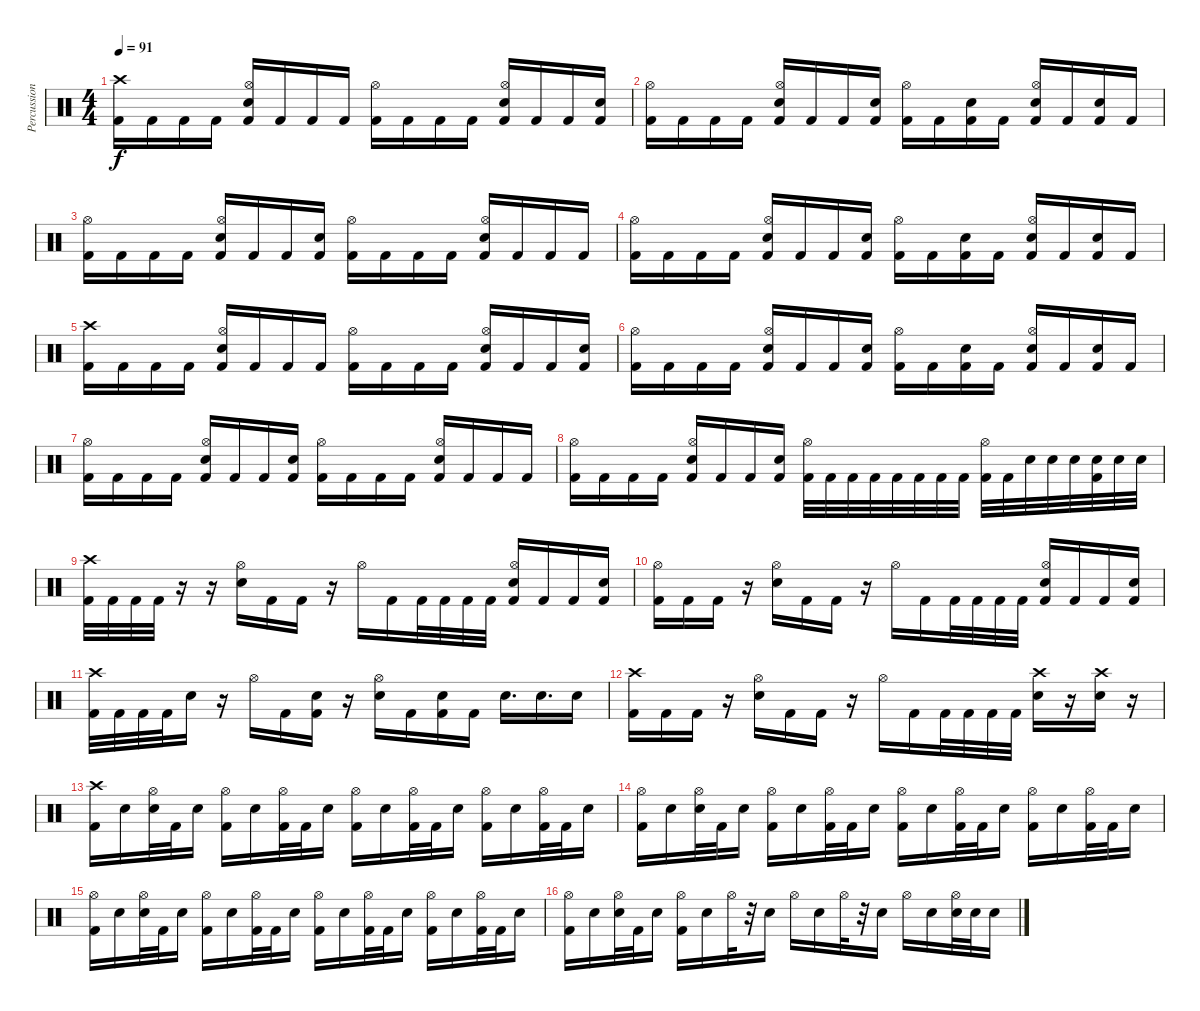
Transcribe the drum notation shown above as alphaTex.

\track ("Percussion" "Percussion") {instrument percussion}
\staff {score}
\articulation defaults
\ts (4 4)
\tempo 91
\clef neutral
\ks c
("Crash high (hit)" "Kick (hit) 2").16{dy f} "Kick (hit) 2".16 "Kick (hit) 2".16 "Kick (hit) 2".16 ("Hi-Hat (open)" "Snare (hit) 2" "Kick (hit) 2").16 "Kick (hit) 2".16 "Kick (hit) 2".16 "Kick (hit) 2".16 ("Hi-Hat (open)" "Kick (hit) 2").16 "Kick (hit) 2".16 "Kick (hit) 2".16 "Kick (hit) 2".16 ("Hi-Hat (open)" "Snare (hit) 2" "Kick (hit) 2").16 "Kick (hit) 2".16 "Kick (hit) 2".16 ("Snare (hit) 2" "Kick (hit) 2").16 |
("Hi-Hat (open)" "Kick (hit) 2").16 "Kick (hit) 2".16 "Kick (hit) 2".16 "Kick (hit) 2".16 ("Hi-Hat (open)" "Snare (hit) 2" "Kick (hit) 2").16 "Kick (hit) 2".16 "Kick (hit) 2".16 ("Snare (hit) 2" "Kick (hit) 2").16 ("Hi-Hat (open)" "Kick (hit) 2").16 "Kick (hit) 2".16 ("Snare (hit) 2" "Kick (hit) 2").16 "Kick (hit) 2".16 ("Hi-Hat (open)" "Snare (hit) 2" "Kick (hit) 2").16 "Kick (hit) 2".16 ("Snare (hit) 2" "Kick (hit) 2").16 "Kick (hit) 2".16 |
("Hi-Hat (open)" "Kick (hit) 2").16 "Kick (hit) 2".16 "Kick (hit) 2".16 "Kick (hit) 2".16 ("Hi-Hat (open)" "Snare (hit) 2" "Kick (hit) 2").16 "Kick (hit) 2".16 "Kick (hit) 2".16 ("Snare (hit) 2" "Kick (hit) 2").16 ("Hi-Hat (open)" "Kick (hit) 2").16 "Kick (hit) 2".16 "Kick (hit) 2".16 "Kick (hit) 2".16 ("Hi-Hat (open)" "Snare (hit) 2" "Kick (hit) 2").16 "Kick (hit) 2".16 "Kick (hit) 2".16 "Kick (hit) 2".16 |
("Hi-Hat (open)" "Kick (hit) 2").16 "Kick (hit) 2".16 "Kick (hit) 2".16 "Kick (hit) 2".16 ("Hi-Hat (open)" "Snare (hit) 2" "Kick (hit) 2").16 "Kick (hit) 2".16 "Kick (hit) 2".16 ("Snare (hit) 2" "Kick (hit) 2").16 ("Hi-Hat (open)" "Kick (hit) 2").16 "Kick (hit) 2".16 ("Snare (hit) 2" "Kick (hit) 2").16 "Kick (hit) 2".16 ("Hi-Hat (open)" "Snare (hit) 2" "Kick (hit) 2").16 "Kick (hit) 2".16 ("Snare (hit) 2" "Kick (hit) 2").16 "Kick (hit) 2".16 |
("Crash high (hit)" "Kick (hit) 2").16 "Kick (hit) 2".16 "Kick (hit) 2".16 "Kick (hit) 2".16 ("Hi-Hat (open)" "Snare (hit) 2" "Kick (hit) 2").16 "Kick (hit) 2".16 "Kick (hit) 2".16 "Kick (hit) 2".16 ("Hi-Hat (open)" "Kick (hit) 2").16 "Kick (hit) 2".16 "Kick (hit) 2".16 "Kick (hit) 2".16 ("Hi-Hat (open)" "Snare (hit) 2" "Kick (hit) 2").16 "Kick (hit) 2".16 "Kick (hit) 2".16 ("Snare (hit) 2" "Kick (hit) 2").16 |
("Hi-Hat (open)" "Kick (hit) 2").16 "Kick (hit) 2".16 "Kick (hit) 2".16 "Kick (hit) 2".16 ("Hi-Hat (open)" "Snare (hit) 2" "Kick (hit) 2").16 "Kick (hit) 2".16 "Kick (hit) 2".16 ("Snare (hit) 2" "Kick (hit) 2").16 ("Hi-Hat (open)" "Kick (hit) 2").16 "Kick (hit) 2".16 ("Snare (hit) 2" "Kick (hit) 2").16 "Kick (hit) 2".16 ("Hi-Hat (open)" "Snare (hit) 2" "Kick (hit) 2").16 "Kick (hit) 2".16 ("Snare (hit) 2" "Kick (hit) 2").16 "Kick (hit) 2".16 |
("Hi-Hat (open)" "Kick (hit) 2").16 "Kick (hit) 2".16 "Kick (hit) 2".16 "Kick (hit) 2".16 ("Hi-Hat (open)" "Snare (hit) 2" "Kick (hit) 2").16 "Kick (hit) 2".16 "Kick (hit) 2".16 ("Snare (hit) 2" "Kick (hit) 2").16 ("Hi-Hat (open)" "Kick (hit) 2").16 "Kick (hit) 2".16 "Kick (hit) 2".16 "Kick (hit) 2".16 ("Hi-Hat (open)" "Snare (hit) 2" "Kick (hit) 2").16 "Kick (hit) 2".16 "Kick (hit) 2".16 "Kick (hit) 2".16 |
("Hi-Hat (open)" "Kick (hit) 2").16 "Kick (hit) 2".16 "Kick (hit) 2".16 "Kick (hit) 2".16 ("Hi-Hat (open)" "Snare (hit) 2" "Kick (hit) 2").16 "Kick (hit) 2".16 "Kick (hit) 2".16 ("Snare (hit) 2" "Kick (hit) 2").16 ("Hi-Hat (open)" "Kick (hit) 2").32 "Kick (hit) 2".32 "Kick (hit) 2".32 "Kick (hit) 2".32 "Kick (hit) 2".32 "Kick (hit) 2".32 "Kick (hit) 2".32 "Kick (hit) 2".32 ("Hi-Hat (open)" "Kick (hit) 2").32 "Kick (hit) 2".32 "Snare (hit) 2".32 "Snare (hit) 2".32 "Snare (hit) 2".32 ("Snare (hit) 2" "Kick (hit) 2").32 "Snare (hit) 2".32 "Snare (hit) 2".32 |
("Crash high (hit)" "Kick (hit) 2").32 "Kick (hit) 2".32 "Kick (hit) 2".32 "Kick (hit) 2".32 r.16 r.16 ("Hi-Hat (open)" "Snare (hit) 2").16 "Kick (hit) 2".16 "Kick (hit) 2".16 r.16 "Hi-Hat (open)".16 "Kick (hit) 2".16 "Kick (hit) 2".32 "Kick (hit) 2".32 "Kick (hit) 2".32 "Kick (hit) 2".32 ("Hi-Hat (open)" "Snare (hit) 2" "Kick (hit) 2").16 "Kick (hit) 2".16 "Kick (hit) 2".16 ("Snare (hit) 2" "Kick (hit) 2").16 |
("Hi-Hat (open)" "Kick (hit) 2").16 "Kick (hit) 2".16 "Kick (hit) 2".16 r.16 ("Hi-Hat (open)" "Snare (hit) 2").16 "Kick (hit) 2".16 "Kick (hit) 2".16 r.16 "Hi-Hat (open)".16 "Kick (hit) 2".16 "Kick (hit) 2".32 "Kick (hit) 2".32 "Kick (hit) 2".32 "Kick (hit) 2".32 ("Hi-Hat (open)" "Snare (hit) 2" "Kick (hit) 2").16 "Kick (hit) 2".16 "Kick (hit) 2".16 ("Snare (hit) 2" "Kick (hit) 2").16 |
("Crash high (hit)" "Kick (hit) 2").32 "Kick (hit) 2".32 "Kick (hit) 2".32 "Kick (hit) 2".32 "Snare (hit) 2".16 r.16 "Hi-Hat (open)".16 "Kick (hit) 2".16 ("Snare (hit) 2" "Kick (hit) 2").16 r.16 ("Hi-Hat (open)" "Snare (hit) 2").16 "Kick (hit) 2".16 ("Snare (hit) 2" "Kick (hit) 2").16 "Kick (hit) 2".16 "Snare (hit) 2".16{d} "Snare (hit) 2".16{d} "Snare (hit) 2".16 |
("Crash high (hit)" "Kick (hit) 2").16 "Kick (hit) 2".16 "Kick (hit) 2".16 r.16 ("Hi-Hat (open)" "Snare (hit) 2").16 "Kick (hit) 2".16 "Kick (hit) 2".16 r.16 "Hi-Hat (open)".16 "Kick (hit) 2".16 "Kick (hit) 2".32 "Kick (hit) 2".32 "Kick (hit) 2".32 "Kick (hit) 2".32 ("Crash high (hit)" "Snare (hit) 2").16 r.16 ("Crash high (hit)" "Snare (hit) 2").16 r.16 |
("Crash high (hit)" "Kick (hit) 2").16 "Snare (hit) 2".16 ("Hi-Hat (open)" "Snare (hit) 2").32 "Kick (hit) 2".32 "Snare (hit) 2".16 ("Hi-Hat (open)" "Kick (hit) 2").16 "Snare (hit) 2".16 ("Hi-Hat (open)" "Kick (hit) 2").32 "Kick (hit) 2".32 "Snare (hit) 2".16 ("Hi-Hat (open)" "Kick (hit) 2").16 "Snare (hit) 2".16 ("Hi-Hat (open)" "Kick (hit) 2").32 "Kick (hit) 2".32 "Snare (hit) 2".16 ("Hi-Hat (open)" "Kick (hit) 2").16 "Snare (hit) 2".16 ("Hi-Hat (open)" "Kick (hit) 2").32 "Kick (hit) 2".32 "Snare (hit) 2".16 |
("Hi-Hat (open)" "Kick (hit) 2").16 "Snare (hit) 2".16 ("Hi-Hat (open)" "Snare (hit) 2").32 "Kick (hit) 2".32 "Snare (hit) 2".16 ("Hi-Hat (open)" "Kick (hit) 2").16 "Snare (hit) 2".16 ("Hi-Hat (open)" "Kick (hit) 2").32 "Kick (hit) 2".32 "Snare (hit) 2".16 ("Hi-Hat (open)" "Kick (hit) 2").16 "Snare (hit) 2".16 ("Hi-Hat (open)" "Kick (hit) 2").32 "Kick (hit) 2".32 "Snare (hit) 2".16 ("Hi-Hat (open)" "Kick (hit) 2").16 "Snare (hit) 2".16 ("Hi-Hat (open)" "Kick (hit) 2").32 "Kick (hit) 2".32 "Snare (hit) 2".16 |
("Hi-Hat (open)" "Kick (hit) 2").16 "Snare (hit) 2".16 ("Hi-Hat (open)" "Snare (hit) 2").32 "Kick (hit) 2".32 "Snare (hit) 2".16 ("Hi-Hat (open)" "Kick (hit) 2").16 "Snare (hit) 2".16 ("Hi-Hat (open)" "Kick (hit) 2").32 "Kick (hit) 2".32 "Snare (hit) 2".16 ("Hi-Hat (open)" "Kick (hit) 2").16 "Snare (hit) 2".16 ("Hi-Hat (open)" "Kick (hit) 2").32 "Kick (hit) 2".32 "Snare (hit) 2".16 ("Hi-Hat (open)" "Kick (hit) 2").16 "Snare (hit) 2".16 ("Hi-Hat (open)" "Kick (hit) 2").32 "Kick (hit) 2".32 "Snare (hit) 2".16 |
("Hi-Hat (open)" "Kick (hit) 2").16 "Snare (hit) 2".16 ("Hi-Hat (open)" "Snare (hit) 2").32 "Kick (hit) 2".32 "Snare (hit) 2".16 ("Hi-Hat (open)" "Kick (hit) 2").16 "Snare (hit) 2".16 "Hi-Hat (open)".32 r.32 "Snare (hit) 2".16 "Hi-Hat (open)".16 "Snare (hit) 2".16 "Hi-Hat (open)".32 r.32 "Snare (hit) 2".16 "Hi-Hat (open)".16 "Snare (hit) 2".16 ("Hi-Hat (open)" "Snare (hit) 2").32 "Snare (hit) 2".32 "Snare (hit) 2".16
